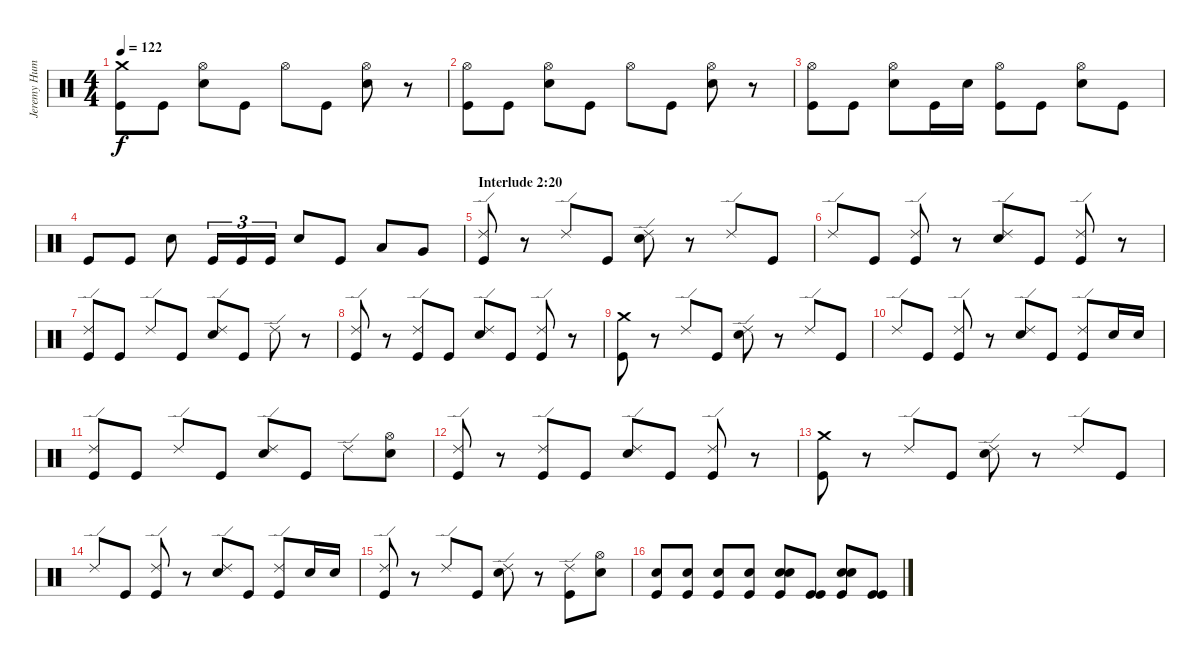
\track ("Jeremy Hummel Drums]" "Jeremy Hum") {instrument percussion}
\staff {score}
\articulation defaults
\ts (4 4)
\tempo 122
\clef neutral
\ks c
("Crash medium (hit)" "Kick (hit)").8{dy f} "Kick (hit)".8 ("Hi-Hat (open)" "Electric Snare (hit)").8 "Kick (hit)".8 "Hi-Hat (open)".8 "Kick (hit)".8 ("Hi-Hat (open)" "Electric Snare (hit)").8 r.8 |
("Hi-Hat (open)" "Kick (hit)").8 "Kick (hit)".8 ("Hi-Hat (open)" "Electric Snare (hit)").8 "Kick (hit)".8 "Hi-Hat (open)".8 "Kick (hit)".8 ("Hi-Hat (open)" "Electric Snare (hit)").8 r.8 |
("Hi-Hat (open)" "Kick (hit)").8 "Kick (hit)".8 ("Hi-Hat (open)" "Electric Snare (hit)").8 "Kick (hit)".16 "Electric Snare (hit)".16 ("Hi-Hat (open)" "Kick (hit)").8 "Kick (hit)".8 ("Hi-Hat (open)" "Electric Snare (hit)").8 "Kick (hit)".8 |
"Kick (hit)".8 "Kick (hit)".8 "Electric Snare (hit)".8 "Kick (hit)".16{tu (3 2)} "Kick (hit)".16{tu (3 2)} "Kick (hit)".16{tu (3 2)} "Electric Snare (hit)".8 "Kick (hit)".8 "Low Tom (hit)".8 "Very Low Tom (hit)".8 |
\section ("" "Interlude 2:20")
("Ride (edge) 2" "Kick (hit)").8 r.8 "Ride (edge) 2".8 "Kick (hit)".8 ("Ride (edge) 2" "Electric Snare (hit)").8 r.8 "Ride (edge) 2".8 "Kick (hit)".8 |
"Ride (edge) 2".8 "Kick (hit)".8 ("Ride (edge) 2" "Kick (hit)").8 r.8 ("Ride (edge) 2" "Electric Snare (hit)").8 "Kick (hit)".8 ("Ride (edge) 2" "Kick (hit)").8 r.8 |
("Ride (edge) 2" "Kick (hit)").8 "Kick (hit)".8 "Ride (edge) 2".8 "Kick (hit)".8 ("Ride (edge) 2" "Electric Snare (hit)").8 "Kick (hit)".8 "Ride (edge) 2".8 r.8 |
("Ride (edge) 2" "Kick (hit)").8 r.8 ("Ride (edge) 2" "Kick (hit)").8 "Kick (hit)".8 ("Ride (edge) 2" "Electric Snare (hit)").8 "Kick (hit)".8 ("Ride (edge) 2" "Kick (hit)").8 r.8 |
("Crash medium (hit)" "Kick (hit)").8 r.8 "Ride (edge) 2".8 "Kick (hit)".8 ("Ride (edge) 2" "Electric Snare (hit)").8 r.8 "Ride (edge) 2".8 "Kick (hit)".8 |
"Ride (edge) 2".8 "Kick (hit)".8 ("Ride (edge) 2" "Kick (hit)").8 r.8 ("Ride (edge) 2" "Electric Snare (hit)").8 "Kick (hit)".8 ("Ride (edge) 2" "Kick (hit)").8 "Electric Snare (hit)".16 "Electric Snare (hit)".16 |
("Ride (edge) 2" "Kick (hit)").8 "Kick (hit)".8 "Ride (edge) 2".8 "Kick (hit)".8 ("Ride (edge) 2" "Electric Snare (hit)").8 "Kick (hit)".8 "Ride (edge) 2".8 ("Hi-Hat (open)" "Electric Snare (hit)").8 |
("Ride (edge) 2" "Kick (hit)").8 r.8 ("Ride (edge) 2" "Kick (hit)").8 "Kick (hit)".8 ("Ride (edge) 2" "Electric Snare (hit)").8 "Kick (hit)".8 ("Ride (edge) 2" "Kick (hit)").8 r.8 |
("Crash medium (hit)" "Kick (hit)").8 r.8 "Ride (edge) 2".8 "Kick (hit)".8 ("Ride (edge) 2" "Electric Snare (hit)").8 r.8 "Ride (edge) 2".8 "Kick (hit)".8 |
"Ride (edge) 2".8 "Kick (hit)".8 ("Ride (edge) 2" "Kick (hit)").8 r.8 ("Ride (edge) 2" "Electric Snare (hit)").8 "Kick (hit)".8 ("Ride (edge) 2" "Kick (hit)").8 "Electric Snare (hit)".16 "Electric Snare (hit)".16 |
("Ride (edge) 2" "Kick (hit)").8 r.8 "Ride (edge) 2".8 "Kick (hit)".8 ("Ride (edge) 2" "Electric Snare (hit)").8 r.8 ("Ride (edge) 2" "Kick (hit)").8 ("Hi-Hat (open)" "Electric Snare (hit)").8 |
("Electric Snare (hit)" "Kick (hit)").8 ("Electric Snare (hit)" "Kick (hit)").8 ("Electric Snare (hit)" "Kick (hit)").8 ("Electric Snare (hit)" "Kick (hit)").8 ("Electric Snare (hit)" "Electric Snare (hit)" "Kick (hit)").8 ("Kick (hit)" "Kick (hit)").8 ("Electric Snare (hit)" "Electric Snare (hit)" "Kick (hit)").8 ("Kick (hit)" "Kick (hit)").8
